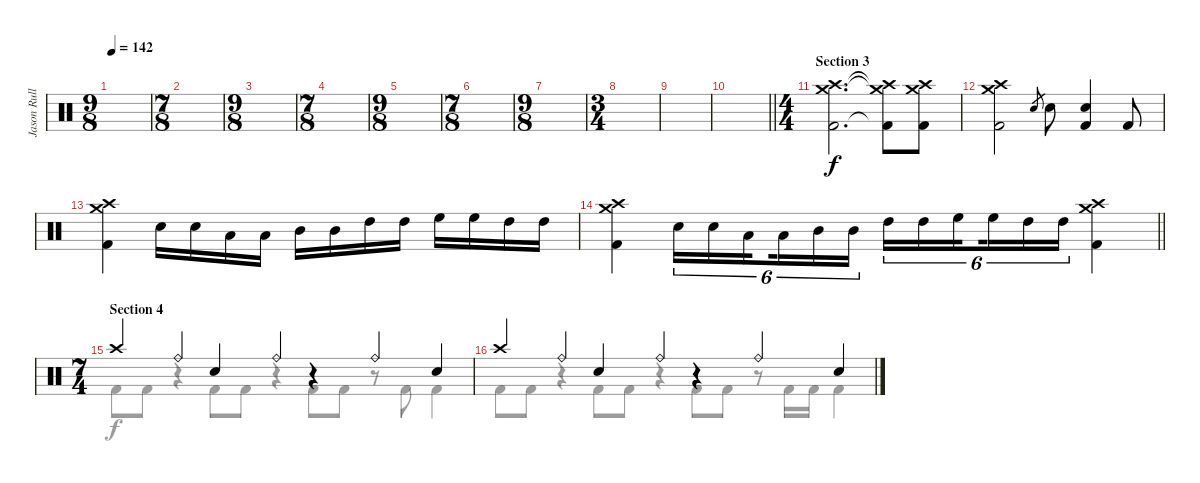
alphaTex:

\track ("Jason Rullo (drums)" "Jason Rull") {instrument percussion}
\staff {score}
\articulation defaults
\voice
\ts (9 8)
\tempo 142
\clef neutral
\ks c
|
\ts (7 8)
|
\ts (9 8)
|
\ts (7 8)
|
\ts (9 8)
|
\ts (7 8)
|
\ts (9 8)
|
\ts (3 4)
|
|
\barLineRight lightlight
|
\ts (4 4)
\section ("" "Section 3")
("Crash high (hit)" "Kick (hit) 2" "Crash medium (hit)").2{d} ("Crash high (hit)"{t} "Kick (hit) 2"{t} "Crash medium (hit)"{t}).8 ("Crash high (hit)" "Kick (hit) 2" "Crash medium (hit)").8 |
("Crash high (hit)" "Kick (hit) 2" "Crash medium (hit)").2 "Electric Snare (hit)".8{gr} "Electric Snare (hit)".8 ("Electric Snare (hit)" "Kick (hit) 2").4 "Kick (hit) 2".8 |
("Crash high (hit)" "Kick (hit) 2" "Crash medium (hit)").4 "Electric Snare (hit)".16 "Electric Snare (hit)".16 "Low Tom (hit)".16 "Low Tom (hit)".16 "Mid Tom (hit)".16 "Mid Tom (hit)".16 "High Tom (hit)".16 "High Tom (hit)".16 "High Floor Tom (hit)".16 "High Floor Tom (hit)".16 "High Tom (hit)".16 "High Tom (hit)".16 |
\barLineRight lightlight
("Crash high (hit)" "Kick (hit) 2" "Crash medium (hit)").4 "Electric Snare (hit)".16{tu (6 4)} "Electric Snare (hit)".16{tu (6 4)} "Low Tom (hit)".16{tu (6 4) beam splitsecondary} "Low Tom (hit)".16{tu (6 4)} "Mid Tom (hit)".16{tu (6 4)} "Mid Tom (hit)".16{tu (6 4)} "High Tom (hit)".16{tu (6 4)} "High Tom (hit)".16{tu (6 4)} "High Floor Tom (hit)".16{tu (6 4) beam splitsecondary} "High Floor Tom (hit)".16{tu (6 4)} "High Tom (hit)".16{tu (6 4)} "High Tom (hit)".16{tu (6 4)} ("Crash high (hit)" "Kick (hit) 2" "Crash medium (hit)").4 |
\ts (7 4)
\section ("" "Section 4")
"Crash high (hit)".4 "Ride (bell)".4 "Electric Snare (hit)".4 "Ride (bell)".4 r.4 "Ride (bell)".4 "Electric Snare (hit)".4 |
"Crash high (hit)".4 "Ride (bell)".4 "Electric Snare (hit)".4 "Ride (bell)".4 r.4 "Ride (bell)".4 "Electric Snare (hit)".4
\voice
\clef neutral
\ottava regular
\simile none
\ks c
|
|
|
|
|
|
|
|
|
\barLineRight lightlight
|
|
|
|
\barLineRight lightlight
|
"Kick (hit) 2".8 "Kick (hit) 2".8 r.4 "Kick (hit) 2".8 "Kick (hit) 2".8 r.4 "Kick (hit) 2".8 "Kick (hit) 2".8 r.8 "Kick (hit) 2".8 "Kick (hit) 2".4 |
"Kick (hit) 2".8 "Kick (hit) 2".8 r.4 "Kick (hit) 2".8 "Kick (hit) 2".8 r.4 "Kick (hit) 2".8 "Kick (hit) 2".8 r.8 "Kick (hit) 2".16 "Kick (hit) 2".16 "Kick (hit) 2".4
